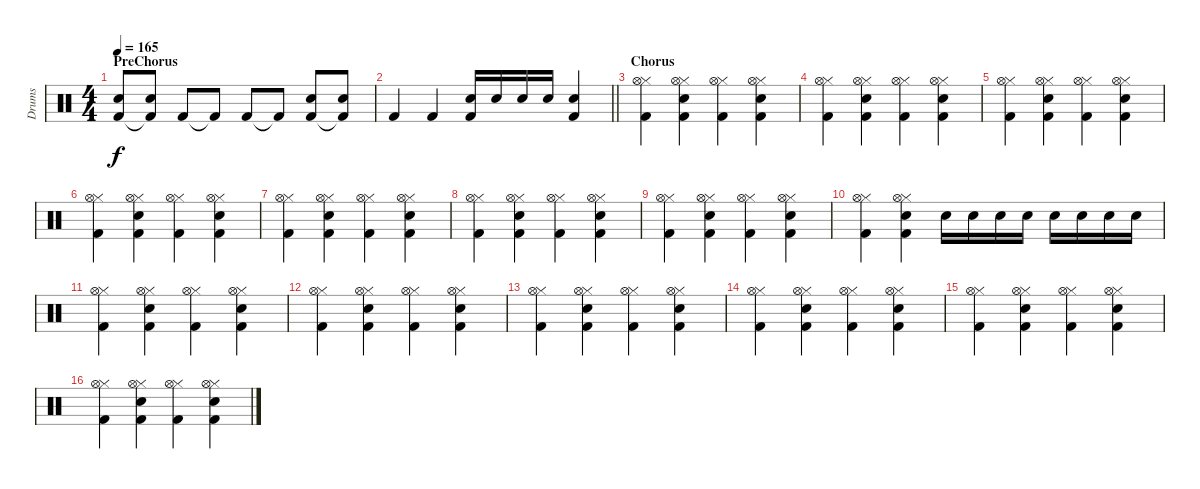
\track ("Drums" "Drums") {instrument percussion}
\staff {score}
\articulation defaults
\ts (4 4)
\section ("" "PreChorus")
\tempo 165
\clef neutral
\ks c
("Snare (hit) 2" "Kick (hit) 2").8{dy f} ("Snare (hit) 2" "Kick (hit) 2"{t}).8 "Kick (hit) 2".8 "Kick (hit) 2"{t}.8 "Kick (hit) 2".8 "Kick (hit) 2"{t}.8 ("Snare (hit) 2" "Kick (hit) 2").8 ("Snare (hit) 2" "Kick (hit) 2"{t}).8 |
\barLineRight lightlight "Kick (hit) 2".4 "Kick (hit) 2".4
("Snare (hit) 2" "Kick (hit) 2").16 "Snare (hit) 2".16 "Snare (hit) 2".16 "Snare (hit) 2".16 ("Snare (hit) 2" "Kick (hit) 2").4 |
\section ("" "Chorus")
("Hi-Hat (closed)" "Hi-Hat (open)" "Kick (hit) 2").4 ("Hi-Hat (closed)" "Hi-Hat (open)" "Snare (hit) 2" "Kick (hit) 2").4 ("Hi-Hat (closed)" "Hi-Hat (open)" "Kick (hit) 2").4 ("Hi-Hat (closed)" "Hi-Hat (open)" "Snare (hit) 2" "Kick (hit) 2").4 |
("Hi-Hat (closed)" "Hi-Hat (open)" "Kick (hit) 2").4 ("Hi-Hat (closed)" "Hi-Hat (open)" "Snare (hit) 2" "Kick (hit) 2").4 ("Hi-Hat (closed)" "Hi-Hat (open)" "Kick (hit) 2").4 ("Hi-Hat (closed)" "Hi-Hat (open)" "Snare (hit) 2" "Kick (hit) 2").4 |
("Hi-Hat (closed)" "Hi-Hat (open)" "Kick (hit) 2").4 ("Hi-Hat (closed)" "Hi-Hat (open)" "Snare (hit) 2" "Kick (hit) 2").4 ("Hi-Hat (closed)" "Hi-Hat (open)" "Kick (hit) 2").4 ("Hi-Hat (closed)" "Hi-Hat (open)" "Snare (hit) 2" "Kick (hit) 2").4 |
("Hi-Hat (closed)" "Hi-Hat (open)" "Kick (hit) 2").4 ("Hi-Hat (closed)" "Hi-Hat (open)" "Snare (hit) 2" "Kick (hit) 2").4 ("Hi-Hat (closed)" "Hi-Hat (open)" "Kick (hit) 2").4 ("Hi-Hat (closed)" "Hi-Hat (open)" "Snare (hit) 2" "Kick (hit) 2").4 |
("Hi-Hat (closed)" "Hi-Hat (open)" "Kick (hit) 2").4 ("Hi-Hat (closed)" "Hi-Hat (open)" "Snare (hit) 2" "Kick (hit) 2").4 ("Hi-Hat (closed)" "Hi-Hat (open)" "Kick (hit) 2").4 ("Hi-Hat (closed)" "Hi-Hat (open)" "Snare (hit) 2" "Kick (hit) 2").4 |
("Hi-Hat (closed)" "Hi-Hat (open)" "Kick (hit) 2").4 ("Hi-Hat (closed)" "Hi-Hat (open)" "Snare (hit) 2" "Kick (hit) 2").4 ("Hi-Hat (closed)" "Hi-Hat (open)" "Kick (hit) 2").4 ("Hi-Hat (closed)" "Hi-Hat (open)" "Snare (hit) 2" "Kick (hit) 2").4 |
("Hi-Hat (closed)" "Hi-Hat (open)" "Kick (hit) 2").4 ("Hi-Hat (closed)" "Hi-Hat (open)" "Snare (hit) 2" "Kick (hit) 2").4 ("Hi-Hat (closed)" "Hi-Hat (open)" "Kick (hit) 2").4 ("Hi-Hat (closed)" "Hi-Hat (open)" "Snare (hit) 2" "Kick (hit) 2").4 |
("Hi-Hat (closed)" "Hi-Hat (open)" "Kick (hit) 2").4 ("Hi-Hat (closed)" "Hi-Hat (open)" "Snare (hit) 2" "Kick (hit) 2").4 "Snare (hit) 2".16 "Snare (hit) 2".16 "Snare (hit) 2".16 "Snare (hit) 2".16 "Snare (hit) 2".16 "Snare (hit) 2".16 "Snare (hit) 2".16 "Snare (hit) 2".16 |
("Hi-Hat (closed)" "Hi-Hat (open)" "Kick (hit) 2").4 ("Hi-Hat (closed)" "Hi-Hat (open)" "Snare (hit) 2" "Kick (hit) 2").4 ("Hi-Hat (closed)" "Hi-Hat (open)" "Kick (hit) 2").4 ("Hi-Hat (closed)" "Hi-Hat (open)" "Snare (hit) 2" "Kick (hit) 2").4 |
("Hi-Hat (closed)" "Hi-Hat (open)" "Kick (hit) 2").4 ("Hi-Hat (closed)" "Hi-Hat (open)" "Snare (hit) 2" "Kick (hit) 2").4 ("Hi-Hat (closed)" "Hi-Hat (open)" "Kick (hit) 2").4 ("Hi-Hat (closed)" "Hi-Hat (open)" "Snare (hit) 2" "Kick (hit) 2").4 |
("Hi-Hat (closed)" "Hi-Hat (open)" "Kick (hit) 2").4 ("Hi-Hat (closed)" "Hi-Hat (open)" "Snare (hit) 2" "Kick (hit) 2").4 ("Hi-Hat (closed)" "Hi-Hat (open)" "Kick (hit) 2").4 ("Hi-Hat (closed)" "Hi-Hat (open)" "Snare (hit) 2" "Kick (hit) 2").4 |
("Hi-Hat (closed)" "Hi-Hat (open)" "Kick (hit) 2").4 ("Hi-Hat (closed)" "Hi-Hat (open)" "Snare (hit) 2" "Kick (hit) 2").4 ("Hi-Hat (closed)" "Hi-Hat (open)" "Kick (hit) 2").4 ("Hi-Hat (closed)" "Hi-Hat (open)" "Snare (hit) 2" "Kick (hit) 2").4 |
("Hi-Hat (closed)" "Hi-Hat (open)" "Kick (hit) 2").4 ("Hi-Hat (closed)" "Hi-Hat (open)" "Snare (hit) 2" "Kick (hit) 2").4 ("Hi-Hat (closed)" "Hi-Hat (open)" "Kick (hit) 2").4 ("Hi-Hat (closed)" "Hi-Hat (open)" "Snare (hit) 2" "Kick (hit) 2").4 |
("Hi-Hat (closed)" "Hi-Hat (open)" "Kick (hit) 2").4 ("Hi-Hat (closed)" "Hi-Hat (open)" "Snare (hit) 2" "Kick (hit) 2").4 ("Hi-Hat (closed)" "Hi-Hat (open)" "Kick (hit) 2").4 ("Hi-Hat (closed)" "Hi-Hat (open)" "Snare (hit) 2" "Kick (hit) 2").4
